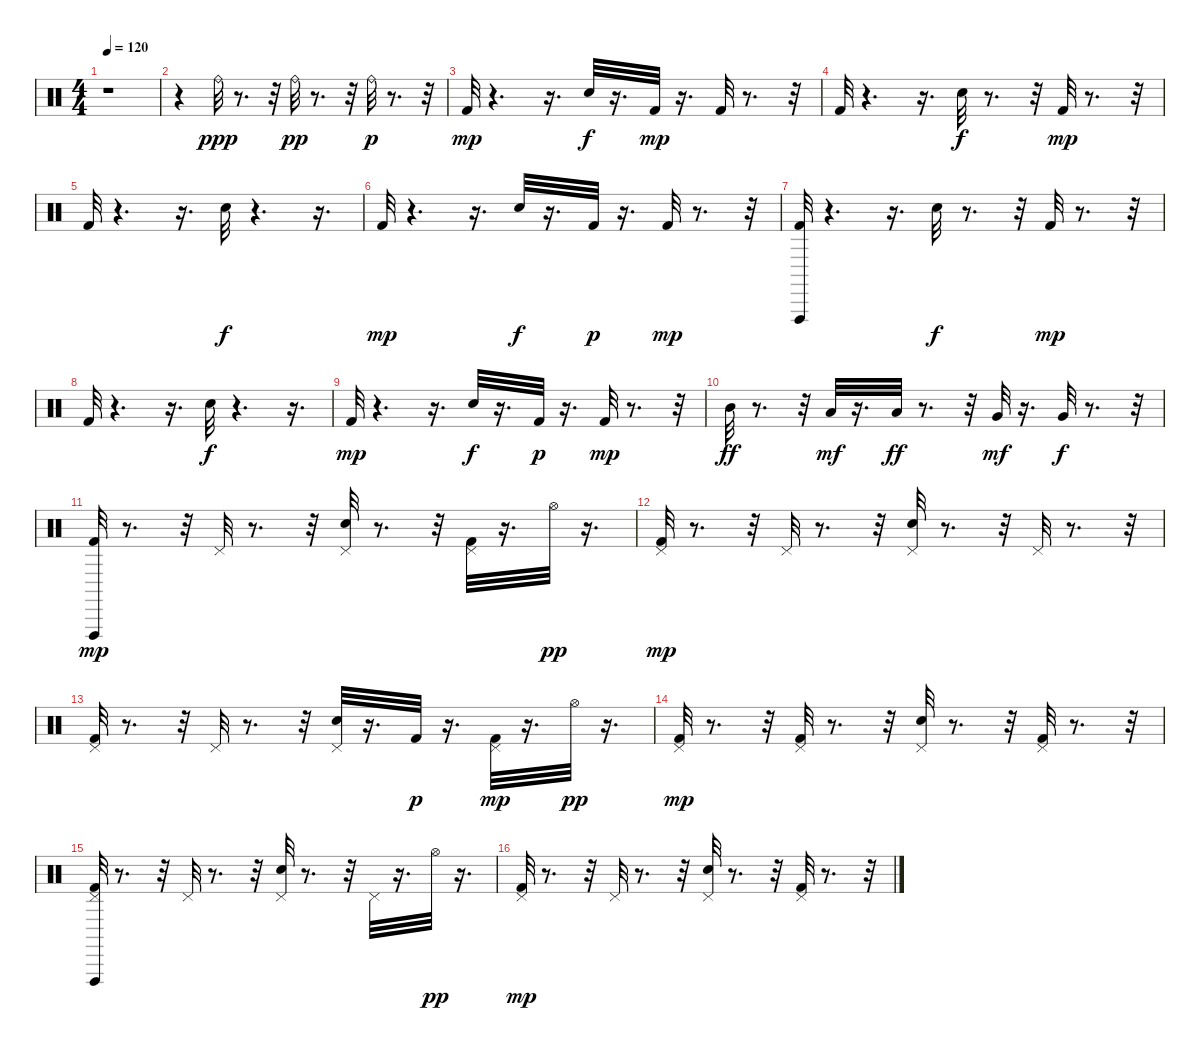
\track "" {instrument percussion}
\staff {score}
\articulation defaults
\ts (4 4)
\tempo 120
\clef neutral
\ks c
r.1{dy ppp} |
r.4 "Ride (bell)".32 r.8{d} r.32 "Ride (bell)".32{dy pp} r.8{d} r.32 "Ride (bell)".32{dy p} r.8{d} r.32 |
"Kick (hit) 2".32{dy mp} r.4{d} r.16{d} "Snare (hit) 2".32{dy f} r.16{d} "Kick (hit) 2".32{dy mp} r.16{d} "Kick (hit) 2".32 r.8{d} r.32 |
"Kick (hit) 2".32 r.4{d} r.16{d} "Snare (hit) 2".32{dy f} r.8{d} r.32 "Kick (hit) 2".32{dy mp} r.8{d} r.32 |
"Kick (hit) 2".32 r.4{d} r.16{d} "Snare (hit) 2".32{dy f} r.4{d} r.16{d} |
"Kick (hit) 2".32{dy mp} r.4{d} r.16{d} "Snare (hit) 2".32{dy f} r.16{d} "Kick (hit) 2".32{dy p} r.16{d} "Kick (hit) 2".32{dy mp} r.8{d} r.32 |
("Vibraslap (hit)" "Kick (hit) 2").32 r.4{d} r.16{d} "Snare (hit) 2".32{dy f} r.8{d} r.32 "Kick (hit) 2".32{dy mp} r.8{d} r.32 |
"Kick (hit) 2".32 r.4{d} r.16{d} "Snare (hit) 2".32{dy f} r.4{d} r.16{d} |
"Kick (hit) 2".32{dy mp} r.4{d} r.16{d} "Snare (hit) 2".32{dy f} r.16{d} "Kick (hit) 2".32{dy p} r.16{d} "Kick (hit) 2".32{dy mp} r.8{d} r.32 |
"Mid Tom (hit)".32{dy ff} r.8{d} r.32 "Low Tom (hit)".32{dy mf} r.16{d} "Low Tom (hit)".32{dy ff} r.8{d} r.32 "Very Low Tom (hit)".32{dy mf} r.16{d} "Very Low Tom (hit)".32{dy f} r.8{d} r.32 |
("Vibraslap (hit)" "Kick (hit) 2").32{dy mp} r.8{d} r.32 "Pedal Hi-Hat (hit)".32 r.8{d} r.32 ("Pedal Hi-Hat (hit)" "Snare (hit) 2").32 r.8{d} r.32 ("Pedal Hi-Hat (hit)" "Kick (hit) 2").32 r.16{d} "Hi-Hat (open)".32{dy pp} r.16{d} |
("Pedal Hi-Hat (hit)" "Kick (hit) 2").32{dy mp} r.8{d} r.32 "Pedal Hi-Hat (hit)".32 r.8{d} r.32 ("Pedal Hi-Hat (hit)" "Snare (hit) 2").32 r.8{d} r.32 "Pedal Hi-Hat (hit)".32 r.8{d} r.32 |
("Pedal Hi-Hat (hit)" "Kick (hit) 2").32 r.8{d} r.32 "Pedal Hi-Hat (hit)".32 r.8{d} r.32 ("Pedal Hi-Hat (hit)" "Snare (hit) 2").32 r.16{d} "Kick (hit) 2".32{dy p} r.16{d} ("Pedal Hi-Hat (hit)" "Kick (hit) 2").32{dy mp} r.16{d} "Hi-Hat (open)".32{dy pp} r.16{d} |
("Pedal Hi-Hat (hit)" "Kick (hit) 2").32{dy mp} r.8{d} r.32 ("Pedal Hi-Hat (hit)" "Kick (hit) 2").32 r.8{d} r.32 ("Pedal Hi-Hat (hit)" "Snare (hit) 2").32 r.8{d} r.32 ("Pedal Hi-Hat (hit)" "Kick (hit) 2").32 r.8{d} r.32 |
("Vibraslap (hit)" "Pedal Hi-Hat (hit)" "Kick (hit) 2").32 r.8{d} r.32 "Pedal Hi-Hat (hit)".32 r.8{d} r.32 ("Pedal Hi-Hat (hit)" "Snare (hit) 2").32 r.8{d} r.32 "Pedal Hi-Hat (hit)".32 r.16{d} "Hi-Hat (open)".32{dy pp} r.16{d} |
("Pedal Hi-Hat (hit)" "Kick (hit) 2").32{dy mp} r.8{d} r.32 "Pedal Hi-Hat (hit)".32 r.8{d} r.32 ("Pedal Hi-Hat (hit)" "Snare (hit) 2").32 r.8{d} r.32 ("Pedal Hi-Hat (hit)" "Kick (hit) 2").32 r.8{d} r.32
